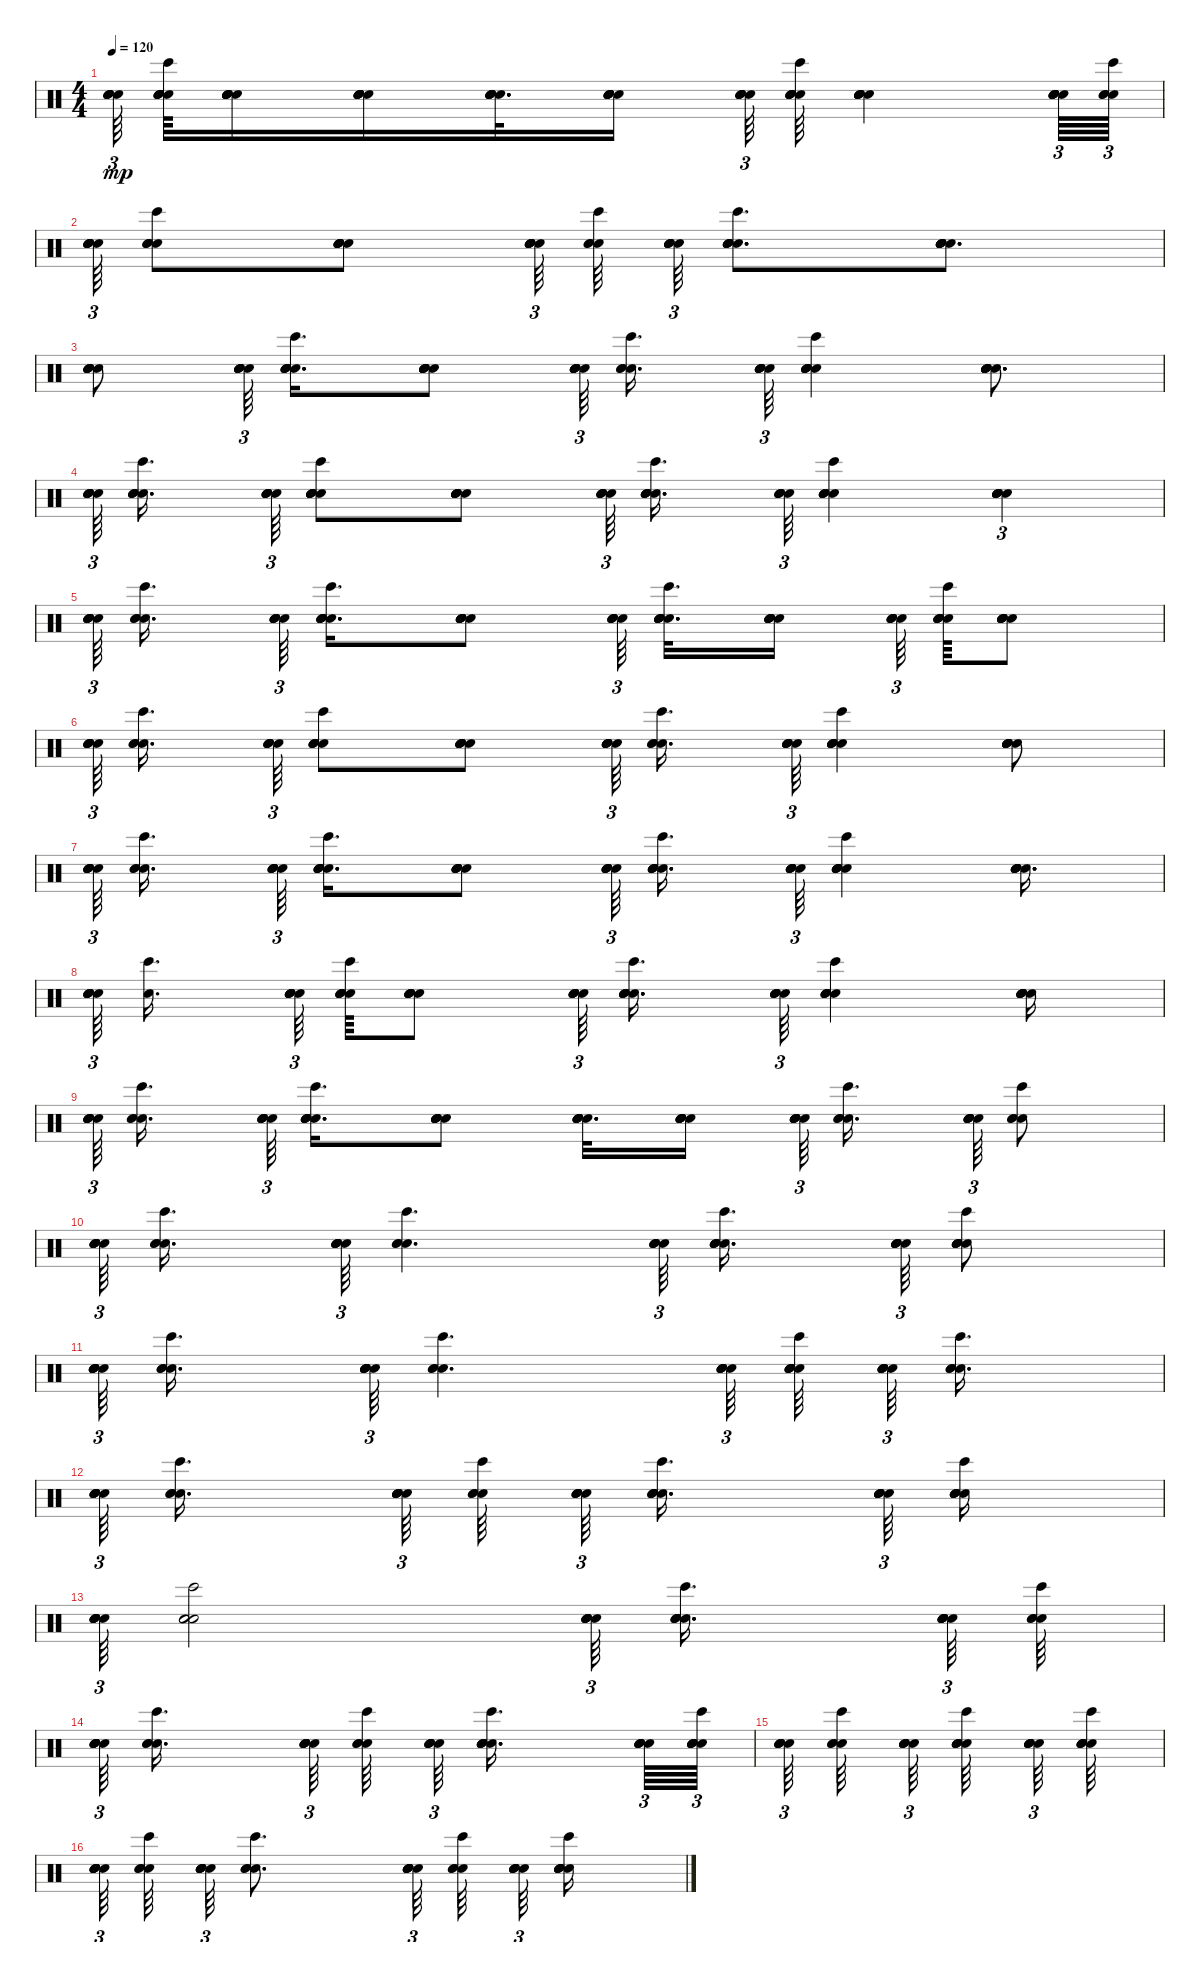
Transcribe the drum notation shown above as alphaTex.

\track "" {instrument percussion}
\staff {score}
\articulation defaults
\ts (4 4)
\tempo 120
\clef neutral
\ks c
("Snare (hit)" "Snare (hit)" "Snare (hit)" "Snare (hit)" "Snare (hit)").64{tu (3 2) dy mp} ("Snare (hit)" "Snare (hit)" "Snare (hit)" "Snare (hit)" "Bongo High (hit)" "Snare (hit)").64 ("Snare (hit)" "Snare (hit)" "Snare (hit)" "Snare (hit)" "Snare (hit)" "Snare (hit)").16 ("Snare (hit)" "Snare (hit)" "Snare (hit)" "Snare (hit)" "Snare (hit)" "Snare (hit)").16 ("Snare (hit)" "Snare (hit)" "Snare (hit)" "Snare (hit)" "Snare (hit)" "Snare (hit)").32{d} ("Snare (hit)" "Snare (hit)" "Snare (hit)" "Snare (hit)" "Snare (hit)" "Snare (hit)").16 ("Snare (hit)" "Snare (hit)" "Snare (hit)" "Snare (hit)" "Snare (hit)").64{tu (3 2)} ("Snare (hit)" "Snare (hit)" "Snare (hit)" "Snare (hit)" "Bongo High (hit)" "Snare (hit)").64 ("Snare (hit)" "Snare (hit)" "Snare (hit)" "Snare (hit)" "Snare (hit)" "Snare (hit)").4 ("Snare (hit)" "Snare (hit)" "Snare (hit)" "Snare (hit)" "Snare (hit)" "Snare (hit)").64{tu (3 2)} ("Snare (hit)" "Snare (hit)" "Snare (hit)" "Bongo High (hit)").64{tu (3 2)} |
("Snare (hit)" "Snare (hit)" "Snare (hit)" "Snare (hit)" "Snare (hit)" "Snare (hit)").64{tu (3 2)} ("Snare (hit)" "Snare (hit)" "Snare (hit)" "Snare (hit)" "Bongo High (hit)").8 ("Snare (hit)" "Snare (hit)" "Snare (hit)" "Snare (hit)" "Snare (hit)" "Snare (hit)").8 ("Snare (hit)" "Snare (hit)" "Snare (hit)" "Snare (hit)" "Snare (hit)" "Snare (hit)").64{tu (3 2)} ("Snare (hit)" "Snare (hit)" "Bongo High (hit)" "Snare (hit)").64 ("Snare (hit)" "Snare (hit)" "Snare (hit)" "Snare (hit)" "Snare (hit)").64{tu (3 2)} ("Snare (hit)" "Snare (hit)" "Snare (hit)" "Snare (hit)" "Snare (hit)" "Bongo High (hit)").8{d} ("Snare (hit)" "Snare (hit)" "Snare (hit)" "Snare (hit)" "Snare (hit)" "Snare (hit)").8{d} |
("Snare (hit)" "Snare (hit)" "Snare (hit)" "Snare (hit)" "Snare (hit)" "Snare (hit)").8 ("Snare (hit)" "Snare (hit)" "Snare (hit)" "Snare (hit)" "Snare (hit)").64{tu (3 2)} ("Snare (hit)" "Snare (hit)" "Snare (hit)" "Snare (hit)" "Snare (hit)" "Bongo High (hit)").16{d} ("Snare (hit)" "Snare (hit)" "Snare (hit)" "Snare (hit)" "Snare (hit)" "Snare (hit)").8 ("Snare (hit)" "Snare (hit)" "Snare (hit)" "Snare (hit)" "Snare (hit)" "Snare (hit)").64{tu (3 2)} ("Snare (hit)" "Snare (hit)" "Snare (hit)" "Bongo High (hit)").16{d} ("Snare (hit)" "Snare (hit)" "Snare (hit)" "Snare (hit)" "Snare (hit)").64{tu (3 2)} ("Snare (hit)" "Snare (hit)" "Snare (hit)" "Snare (hit)" "Snare (hit)" "Bongo High (hit)").4 ("Snare (hit)" "Snare (hit)" "Snare (hit)" "Snare (hit)" "Snare (hit)" "Snare (hit)").8{d} |
("Snare (hit)" "Snare (hit)" "Snare (hit)" "Snare (hit)" "Snare (hit)" "Snare (hit)").64{tu (3 2)} ("Snare (hit)" "Snare (hit)" "Snare (hit)" "Snare (hit)" "Bongo High (hit)").16{d} ("Snare (hit)" "Snare (hit)" "Snare (hit)" "Snare (hit)" "Snare (hit)").64{tu (3 2)} ("Snare (hit)" "Snare (hit)" "Snare (hit)" "Snare (hit)" "Bongo High (hit)" "Snare (hit)").8 ("Snare (hit)" "Snare (hit)" "Snare (hit)" "Snare (hit)" "Snare (hit)" "Snare (hit)").8 ("Snare (hit)" "Snare (hit)" "Snare (hit)" "Snare (hit)" "Snare (hit)").64{tu (3 2)} ("Snare (hit)" "Snare (hit)" "Snare (hit)" "Snare (hit)" "Snare (hit)" "Bongo High (hit)").16{d} ("Snare (hit)" "Snare (hit)" "Snare (hit)" "Snare (hit)" "Snare (hit)").64{tu (3 2)} ("Snare (hit)" "Snare (hit)" "Snare (hit)" "Snare (hit)" "Bongo High (hit)" "Snare (hit)").4 ("Snare (hit)" "Snare (hit)" "Snare (hit)" "Snare (hit)" "Snare (hit)" "Snare (hit)").4{tu (3 2)} |
("Snare (hit)" "Snare (hit)" "Snare (hit)" "Snare (hit)" "Snare (hit)" "Snare (hit)").64{tu (3 2)} ("Snare (hit)" "Snare (hit)" "Snare (hit)" "Bongo High (hit)").16{d} ("Snare (hit)" "Snare (hit)" "Snare (hit)" "Snare (hit)" "Snare (hit)").64{tu (3 2)} ("Snare (hit)" "Snare (hit)" "Snare (hit)" "Snare (hit)" "Bongo High (hit)" "Snare (hit)").16{d} ("Snare (hit)" "Snare (hit)" "Snare (hit)" "Snare (hit)" "Snare (hit)" "Snare (hit)").8 ("Snare (hit)" "Snare (hit)" "Snare (hit)" "Snare (hit)" "Snare (hit)").64{tu (3 2)} ("Snare (hit)" "Snare (hit)" "Snare (hit)" "Snare (hit)" "Bongo High (hit)" "Snare (hit)").32{d} ("Snare (hit)" "Snare (hit)" "Snare (hit)" "Snare (hit)" "Snare (hit)" "Snare (hit)").16 ("Snare (hit)" "Snare (hit)" "Snare (hit)" "Snare (hit)" "Snare (hit)").64{tu (3 2)} ("Snare (hit)" "Snare (hit)" "Snare (hit)" "Snare (hit)" "Bongo High (hit)" "Snare (hit)").64 ("Snare (hit)" "Snare (hit)" "Snare (hit)" "Snare (hit)" "Snare (hit)" "Snare (hit)").8 |
("Snare (hit)" "Snare (hit)" "Snare (hit)" "Snare (hit)" "Snare (hit)" "Snare (hit)").64{tu (3 2)} ("Snare (hit)" "Snare (hit)" "Snare (hit)" "Bongo High (hit)").16{d} ("Snare (hit)" "Snare (hit)" "Snare (hit)" "Snare (hit)" "Snare (hit)").64{tu (3 2)} ("Snare (hit)" "Snare (hit)" "Snare (hit)" "Snare (hit)" "Snare (hit)" "Bongo High (hit)").8 ("Snare (hit)" "Snare (hit)" "Snare (hit)" "Snare (hit)" "Snare (hit)" "Snare (hit)").8 ("Snare (hit)" "Snare (hit)" "Snare (hit)" "Snare (hit)" "Snare (hit)" "Snare (hit)").64{tu (3 2)} ("Snare (hit)" "Snare (hit)" "Snare (hit)" "Bongo High (hit)").16{d} ("Snare (hit)" "Snare (hit)" "Snare (hit)" "Snare (hit)" "Snare (hit)").64{tu (3 2)} ("Snare (hit)" "Snare (hit)" "Snare (hit)" "Snare (hit)" "Snare (hit)" "Bongo High (hit)").4 ("Snare (hit)" "Snare (hit)" "Snare (hit)" "Snare (hit)" "Snare (hit)" "Snare (hit)").8 |
("Snare (hit)" "Snare (hit)" "Snare (hit)" "Snare (hit)" "Snare (hit)" "Snare (hit)").64{tu (3 2)} ("Snare (hit)" "Snare (hit)" "Snare (hit)" "Bongo High (hit)").16{d} ("Snare (hit)" "Snare (hit)" "Snare (hit)" "Snare (hit)" "Snare (hit)").64{tu (3 2)} ("Snare (hit)" "Snare (hit)" "Snare (hit)" "Snare (hit)" "Snare (hit)" "Bongo High (hit)").16{d} ("Snare (hit)" "Snare (hit)" "Snare (hit)" "Snare (hit)" "Snare (hit)" "Snare (hit)").8 ("Snare (hit)" "Snare (hit)" "Snare (hit)" "Snare (hit)" "Snare (hit)").64{tu (3 2)} ("Snare (hit)" "Snare (hit)" "Snare (hit)" "Snare (hit)" "Bongo High (hit)" "Snare (hit)").16{d} ("Snare (hit)" "Snare (hit)" "Snare (hit)" "Snare (hit)" "Snare (hit)").64{tu (3 2)} ("Snare (hit)" "Snare (hit)" "Snare (hit)" "Snare (hit)" "Bongo High (hit)" "Snare (hit)").4 ("Snare (hit)" "Snare (hit)" "Snare (hit)" "Snare (hit)" "Snare (hit)" "Snare (hit)").16{d} |
("Snare (hit)" "Snare (hit)" "Snare (hit)" "Snare (hit)" "Snare (hit)" "Snare (hit)").64{tu (3 2)} ("Bongo High (hit)" "Snare (hit)").16{d} ("Snare (hit)" "Snare (hit)" "Snare (hit)" "Snare (hit)" "Snare (hit)").64{tu (3 2)} ("Snare (hit)" "Snare (hit)" "Snare (hit)" "Snare (hit)" "Bongo High (hit)" "Snare (hit)").64 ("Snare (hit)" "Snare (hit)" "Snare (hit)" "Snare (hit)" "Snare (hit)" "Snare (hit)").8 ("Snare (hit)" "Snare (hit)" "Snare (hit)" "Snare (hit)" "Snare (hit)").64{tu (3 2)} ("Snare (hit)" "Snare (hit)" "Snare (hit)" "Snare (hit)" "Snare (hit)" "Bongo High (hit)").16{d} ("Snare (hit)" "Snare (hit)" "Snare (hit)" "Snare (hit)" "Snare (hit)").64{tu (3 2)} ("Snare (hit)" "Snare (hit)" "Snare (hit)" "Bongo High (hit)" "Snare (hit)" "Snare (hit)").4 ("Snare (hit)" "Snare (hit)" "Snare (hit)" "Snare (hit)" "Snare (hit)" "Snare (hit)").16 |
("Snare (hit)" "Snare (hit)" "Snare (hit)" "Snare (hit)" "Snare (hit)" "Snare (hit)").64{tu (3 2)} ("Snare (hit)" "Snare (hit)" "Bongo High (hit)" "Snare (hit)").16{d} ("Snare (hit)" "Snare (hit)" "Snare (hit)" "Snare (hit)" "Snare (hit)").64{tu (3 2)} ("Snare (hit)" "Snare (hit)" "Snare (hit)" "Snare (hit)" "Bongo High (hit)" "Snare (hit)").16{d} ("Snare (hit)" "Snare (hit)" "Snare (hit)" "Snare (hit)" "Snare (hit)" "Snare (hit)").8 ("Snare (hit)" "Snare (hit)" "Snare (hit)" "Snare (hit)" "Snare (hit)" "Snare (hit)").32{d} ("Snare (hit)" "Snare (hit)" "Snare (hit)" "Snare (hit)" "Snare (hit)" "Snare (hit)").16 ("Snare (hit)" "Snare (hit)" "Snare (hit)" "Snare (hit)" "Snare (hit)" "Snare (hit)").64{tu (3 2)} ("Snare (hit)" "Snare (hit)" "Bongo High (hit)" "Snare (hit)").16{d} ("Snare (hit)" "Snare (hit)" "Snare (hit)" "Snare (hit)" "Snare (hit)" "Snare (hit)").64{tu (3 2)} ("Snare (hit)" "Snare (hit)" "Snare (hit)" "Bongo High (hit)").8 |
("Snare (hit)" "Snare (hit)" "Snare (hit)" "Snare (hit)" "Snare (hit)" "Snare (hit)").64{tu (3 2)} ("Snare (hit)" "Bongo High (hit)" "Snare (hit)" "Snare (hit)").16{d} ("Snare (hit)" "Snare (hit)" "Snare (hit)" "Snare (hit)" "Snare (hit)" "Snare (hit)").64{tu (3 2)} ("Snare (hit)" "Bongo High (hit)" "Snare (hit)" "Snare (hit)").4{d} ("Snare (hit)" "Snare (hit)" "Snare (hit)" "Snare (hit)" "Snare (hit)").64{tu (3 2)} ("Snare (hit)" "Snare (hit)" "Snare (hit)" "Snare (hit)" "Snare (hit)" "Bongo High (hit)").16{d} ("Snare (hit)" "Snare (hit)" "Snare (hit)" "Snare (hit)" "Snare (hit)").64{tu (3 2)} ("Snare (hit)" "Snare (hit)" "Snare (hit)" "Snare (hit)" "Snare (hit)" "Bongo High (hit)").8 |
("Snare (hit)" "Snare (hit)" "Snare (hit)" "Snare (hit)" "Snare (hit)" "Snare (hit)").64{tu (3 2)} ("Snare (hit)" "Snare (hit)" "Snare (hit)" "Bongo High (hit)").16{d} ("Snare (hit)" "Snare (hit)" "Snare (hit)" "Snare (hit)" "Snare (hit)" "Snare (hit)").64{tu (3 2)} ("Snare (hit)" "Snare (hit)" "Snare (hit)" "Bongo High (hit)").4{d} ("Snare (hit)" "Snare (hit)" "Snare (hit)" "Snare (hit)" "Snare (hit)").64{tu (3 2)} ("Snare (hit)" "Snare (hit)" "Snare (hit)" "Snare (hit)" "Bongo High (hit)" "Snare (hit)").64 ("Snare (hit)" "Snare (hit)" "Snare (hit)" "Snare (hit)" "Snare (hit)" "Snare (hit)").64{tu (3 2)} ("Snare (hit)" "Snare (hit)" "Bongo High (hit)" "Snare (hit)").16{d} |
("Snare (hit)" "Snare (hit)" "Snare (hit)" "Snare (hit)" "Snare (hit)" "Snare (hit)").64{tu (3 2)} ("Snare (hit)" "Snare (hit)" "Bongo High (hit)" "Snare (hit)").16{d} ("Snare (hit)" "Snare (hit)" "Snare (hit)" "Snare (hit)" "Snare (hit)" "Snare (hit)").64{tu (3 2)} ("Snare (hit)" "Snare (hit)" "Bongo High (hit)" "Snare (hit)").64 ("Snare (hit)" "Snare (hit)" "Snare (hit)" "Snare (hit)" "Snare (hit)").64{tu (3 2)} ("Snare (hit)" "Snare (hit)" "Snare (hit)" "Snare (hit)" "Snare (hit)" "Bongo High (hit)").16{d} ("Snare (hit)" "Snare (hit)" "Snare (hit)" "Snare (hit)" "Snare (hit)").64{tu (3 2)} ("Snare (hit)" "Snare (hit)" "Snare (hit)" "Bongo High (hit)" "Snare (hit)" "Snare (hit)").16 |
("Snare (hit)" "Snare (hit)" "Snare (hit)" "Snare (hit)" "Snare (hit)" "Snare (hit)").64{tu (3 2)} ("Snare (hit)" "Snare (hit)" "Bongo High (hit)" "Snare (hit)").2 ("Snare (hit)" "Snare (hit)" "Snare (hit)" "Snare (hit)" "Snare (hit)").64{tu (3 2)} ("Snare (hit)" "Snare (hit)" "Snare (hit)" "Snare (hit)" "Snare (hit)" "Bongo High (hit)").16{d} ("Snare (hit)" "Snare (hit)" "Snare (hit)" "Snare (hit)" "Snare (hit)" "Snare (hit)").64{tu (3 2)} ("Snare (hit)" "Snare (hit)" "Bongo High (hit)" "Snare (hit)").64 |
("Snare (hit)" "Snare (hit)" "Snare (hit)" "Snare (hit)" "Snare (hit)" "Snare (hit)").64{tu (3 2)} ("Snare (hit)" "Snare (hit)" "Snare (hit)" "Bongo High (hit)").16{d} ("Snare (hit)" "Snare (hit)" "Snare (hit)" "Snare (hit)" "Snare (hit)" "Snare (hit)").64{tu (3 2)} ("Snare (hit)" "Snare (hit)" "Bongo High (hit)" "Snare (hit)").64 ("Snare (hit)" "Snare (hit)" "Snare (hit)" "Snare (hit)" "Snare (hit)").64{tu (3 2)} ("Snare (hit)" "Snare (hit)" "Snare (hit)" "Snare (hit)" "Bongo High (hit)" "Snare (hit)").16{d} ("Snare (hit)" "Snare (hit)" "Snare (hit)" "Snare (hit)" "Snare (hit)").64{tu (3 2)} ("Snare (hit)" "Snare (hit)" "Snare (hit)" "Snare (hit)" "Bongo High (hit)" "Snare (hit)").64{tu (3 2)} |
("Snare (hit)" "Snare (hit)" "Snare (hit)" "Snare (hit)" "Snare (hit)" "Snare (hit)").64{tu (3 2)} ("Snare (hit)" "Snare (hit)" "Bongo High (hit)" "Snare (hit)").64 ("Snare (hit)" "Snare (hit)" "Snare (hit)" "Snare (hit)" "Snare (hit)").64{tu (3 2)} ("Snare (hit)" "Snare (hit)" "Snare (hit)" "Snare (hit)" "Bongo High (hit)" "Snare (hit)").64 ("Snare (hit)" "Snare (hit)" "Snare (hit)" "Snare (hit)" "Snare (hit)").64{tu (3 2)} ("Snare (hit)" "Snare (hit)" "Snare (hit)" "Bongo High (hit)" "Snare (hit)" "Snare (hit)").64 |
("Snare (hit)" "Snare (hit)" "Snare (hit)" "Snare (hit)" "Snare (hit)" "Snare (hit)").64{tu (3 2)} ("Snare (hit)" "Snare (hit)" "Bongo High (hit)" "Snare (hit)").64 ("Snare (hit)" "Snare (hit)" "Snare (hit)" "Snare (hit)" "Snare (hit)" "Snare (hit)").64{tu (3 2)} ("Snare (hit)" "Snare (hit)" "Bongo High (hit)" "Snare (hit)").8{d} ("Snare (hit)" "Snare (hit)" "Snare (hit)" "Snare (hit)" "Snare (hit)" "Snare (hit)").64{tu (3 2)} ("Snare (hit)" "Snare (hit)" "Bongo High (hit)" "Snare (hit)").64 ("Snare (hit)" "Snare (hit)" "Snare (hit)" "Snare (hit)" "Snare (hit)").64{tu (3 2)} ("Snare (hit)" "Snare (hit)" "Snare (hit)" "Snare (hit)" "Bongo High (hit)" "Snare (hit)").16
